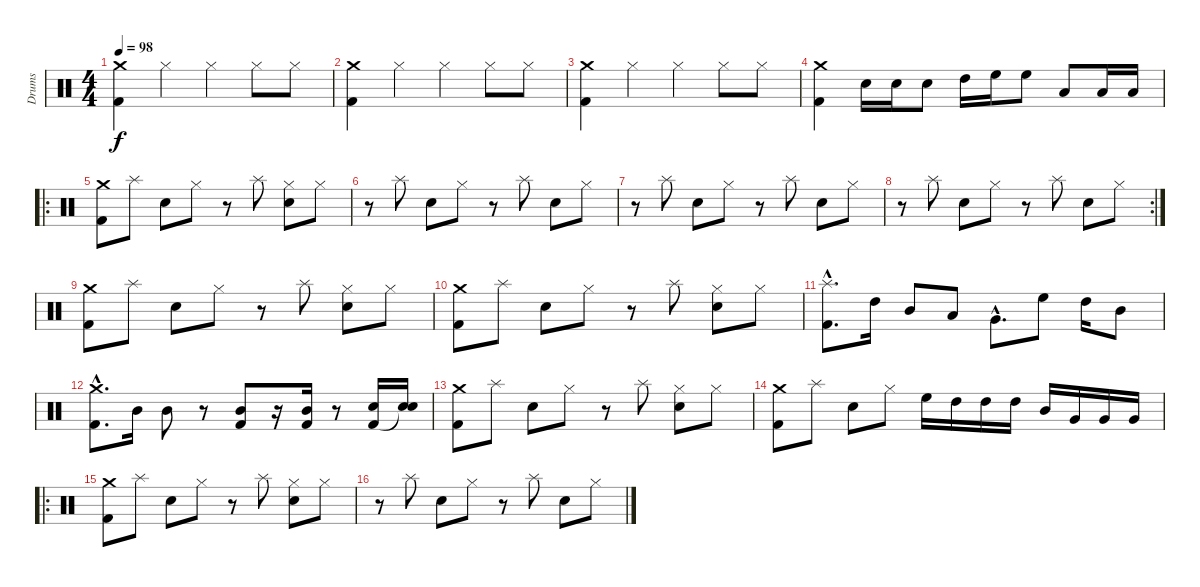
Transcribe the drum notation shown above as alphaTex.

\track ("Drums" "Drums") {instrument percussion}
\staff {score}
\articulation defaults
\ts (4 4)
\tempo 98
\clef neutral
\ks c
("Crash medium (hit)" "Kick (hit) 2").4{dy f} "Hi-Hat (closed)".4 "Hi-Hat (closed)".4 "Hi-Hat (closed)".8 "Hi-Hat (closed)".8 |
("Crash medium (hit)" "Kick (hit) 2").4 "Hi-Hat (closed)".4 "Hi-Hat (closed)".4 "Hi-Hat (closed)".8 "Hi-Hat (closed)".8 |
("Crash medium (hit)" "Kick (hit) 2").4 "Hi-Hat (closed)".4 "Hi-Hat (closed)".4 "Hi-Hat (closed)".8 "Hi-Hat (closed)".8 |
("Crash medium (hit)" "Kick (hit) 2").4 "Snare (hit) 2".16 "Electric Snare (hit)".16 "Electric Snare (hit)".8 "High Tom (hit)".16 "High Floor Tom (hit)".16 "High Floor Tom (hit)".8 "Low Tom (hit)".8 "Low Tom (hit)".16 "Low Tom (hit)".16 |
\ro
("Crash medium (hit)" "Kick (hit) 2").8 "Splash (hit)".8 "Snare (hit) 2".8 "Hi-Hat (closed)".8 r.8 "Splash (hit)".8 ("Hi-Hat (closed)" "Snare (hit) 2").8 "Hi-Hat (closed)".8 |
r.8 "Splash (hit)".8 "Snare (hit) 2".8 "Hi-Hat (closed)".8 r.8 "Splash (hit)".8 "Snare (hit) 2".8 "Hi-Hat (closed)".8 |
r.8 "Splash (hit)".8 "Snare (hit) 2".8 "Hi-Hat (closed)".8 r.8 "Splash (hit)".8 "Snare (hit) 2".8 "Hi-Hat (closed)".8 |
\rc 2
r.8 "Splash (hit)".8 "Snare (hit) 2".8 "Hi-Hat (closed)".8 r.8 "Splash (hit)".8 "Snare (hit) 2".8 "Hi-Hat (closed)".8 |
("Crash medium (hit)" "Kick (hit) 2").8 "Splash (hit)".8 "Snare (hit) 2".8 "Hi-Hat (closed)".8 r.8 "Splash (hit)".8 ("Hi-Hat (closed)" "Snare (hit) 2").8 "Hi-Hat (closed)".8 |
("Crash medium (hit)" "Kick (hit) 2").8 "Splash (hit)".8 "Snare (hit) 2".8 "Hi-Hat (closed)".8 r.8 "Splash (hit)".8 ("Hi-Hat (closed)" "Snare (hit) 2").8 "Hi-Hat (closed)".8 |
("Splash (hit)"{hac} "Kick (hit) 2"{hac}).8{d} "High Tom (hit)".16 "Mid Tom (hit)".8 "Low Tom (hit)".8 "Very Low Tom (hit)"{hac}.8{d} "High Floor Tom (hit)".8 "High Tom (hit)".16 "Mid Tom (hit)".8 |
("Crash medium (hit)"{hac} "Kick (hit) 2"{hac}).8{d} "Mid Tom (hit)".16 "Mid Tom (hit)".8 r.8 ("Mid Tom (hit)" "Kick (hit) 2").8 r.16 ("Mid Tom (hit)" "Kick (hit) 2").16 r.8 ("Electric Snare (hit)" "Kick (hit) 2").16 ("Electric Snare (hit)" "Snare (hit)"{t}).16 |
("Crash medium (hit)" "Kick (hit) 2").8 "Splash (hit)".8 "Snare (hit) 2".8 "Hi-Hat (closed)".8 r.8 "Splash (hit)".8 ("Hi-Hat (closed)" "Snare (hit) 2").8 "Hi-Hat (closed)".8 |
("Crash medium (hit)" "Kick (hit) 2").8 "Splash (hit)".8 "Snare (hit) 2".8 "Hi-Hat (closed)".8 "High Floor Tom (hit)".16 "High Tom (hit)".16 "High Tom (hit)".16 "High Tom (hit)".16 "Mid Tom (hit)".16 "Very Low Tom (hit)".16 "Very Low Tom (hit)".16 "Very Low Tom (hit)".16 |
\ro
("Crash medium (hit)" "Kick (hit) 2").8 "Splash (hit)".8 "Snare (hit) 2".8 "Hi-Hat (closed)".8 r.8 "Splash (hit)".8 ("Hi-Hat (closed)" "Snare (hit) 2").8 "Hi-Hat (closed)".8 |
r.8 "Splash (hit)".8 "Snare (hit) 2".8 "Hi-Hat (closed)".8 r.8 "Splash (hit)".8 "Snare (hit) 2".8 "Hi-Hat (closed)".8
